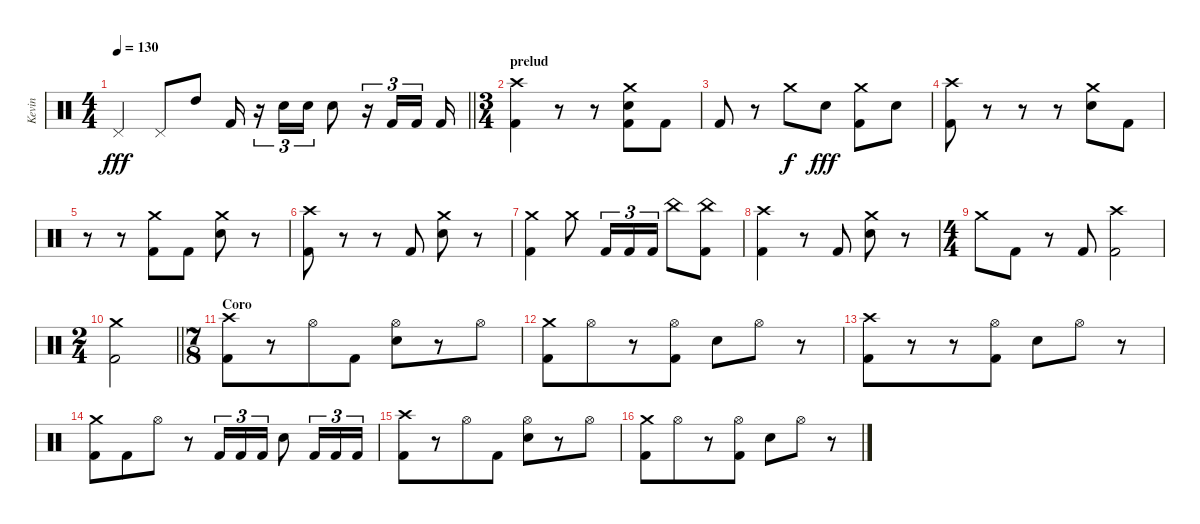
\track ("Kevin" "Kevin") {instrument percussion}
\staff {score}
\articulation defaults
\ts (4 4)
\tempo 130
\clef neutral
\barLineRight lightlight
\ks c "Pedal Hi-Hat (hit)".4{dy fff} "Pedal Hi-Hat (hit)".8 "High Tom (hit)".8 "Kick (hit) 2".16
r.16{tu (3 2)} "Electric Snare (hit)".16{tu (3 2)} "Electric Snare (hit)".16{tu (3 2)} "Electric Snare (hit)".8 r.16{tu (3 2)} "Kick (hit) 2".16{tu (3 2)} "Kick (hit) 2".16{tu (3 2) beam splitsecondary} "Kick (hit) 2".16 |
\ts (3 4)
\section ("" "prelud")
("Crash high (hit)" "Kick (hit) 2").4 r.8 r.8 ("Snare (hit) 2" "Crash medium (hit)" "Kick (hit) 2").8 "Kick (hit) 2".8 |
"Kick (hit) 2".8 r.8 "Crash medium (hit)".8{dy f} "Snare (hit) 2".8{dy fff} ("Crash medium (hit)" "Kick (hit) 2").8 "Snare (hit) 2".8 |
("Crash high (hit)" "Kick (hit) 2").8 r.8 r.8 r.8 ("Snare (hit) 2" "Crash medium (hit)").8 "Kick (hit) 2".8 |
r.8 r.8 ("Crash medium (hit)" "Kick (hit) 2").8 "Kick (hit) 2".8 ("Snare (hit) 2" "Crash medium (hit)").8 r.8 |
("Crash high (hit)" "Kick (hit) 2").8 r.8 r.8 "Kick (hit) 2".8 ("Snare (hit) 2" "Crash medium (hit)").8 r.8 |
("Crash medium (hit)" "Kick (hit) 2").4 "Crash medium (hit)".8 "Kick (hit) 2".16{tu (3 2)} "Kick (hit) 2".16{tu (3 2)} "Kick (hit) 2".16{tu (3 2)} "China (hit)".8 ("China (hit)" "Kick (hit) 2").8 |
("Crash high (hit)" "Kick (hit) 2").4 r.8 "Kick (hit) 2".8 ("Crash medium (hit)" "Snare (hit) 2").8 r.8 |
\ts (4 4)
"Crash medium (hit)".8 "Kick (hit) 2".8 r.8 "Kick (hit) 2".8 ("Crash high (hit)" "Kick (hit) 2").2 |
\ts (2 4)
\barLineRight lightlight
("Crash medium (hit)" "Kick (hit) 2").2 |
\ts (7 8)
\section ("" "Coro")
("Crash high (hit)" "Kick (hit) 2").8 r.8 "Hi-Hat (open)".8 "Kick (hit) 2".8 ("Hi-Hat (open)" "Snare (hit) 2").8 r.8 "Hi-Hat (open)".8 |
("Crash medium (hit)" "Kick (hit) 2").8 "Hi-Hat (open)".8 r.8 ("Hi-Hat (open)" "Kick (hit) 2").8 "Snare (hit) 2".8 "Hi-Hat (open)".8 r.8 |
("Crash high (hit)" "Kick (hit) 2").8 r.8 r.8 ("Hi-Hat (open)" "Kick (hit) 2").8 "Snare (hit) 2".8 "Hi-Hat (open)".8 r.8 |
("Crash medium (hit)" "Kick (hit) 2").8 "Kick (hit) 2".8 "Hi-Hat (open)".8 r.8 "Kick (hit) 2".16{tu (3 2)} "Kick (hit) 2".16{tu (3 2)} "Kick (hit) 2".16{tu (3 2)} "Snare (hit) 2".8 "Kick (hit) 2".16{tu (3 2)} "Kick (hit) 2".16{tu (3 2)} "Kick (hit) 2".16{tu (3 2)} |
("Crash high (hit)" "Kick (hit) 2").8 r.8 "Hi-Hat (open)".8 "Kick (hit) 2".8 ("Hi-Hat (open)" "Snare (hit) 2").8 r.8 "Hi-Hat (open)".8 |
("Crash medium (hit)" "Kick (hit) 2").8 "Hi-Hat (open)".8 r.8 ("Hi-Hat (open)" "Kick (hit) 2").8 "Snare (hit) 2".8 "Hi-Hat (open)".8 r.8
